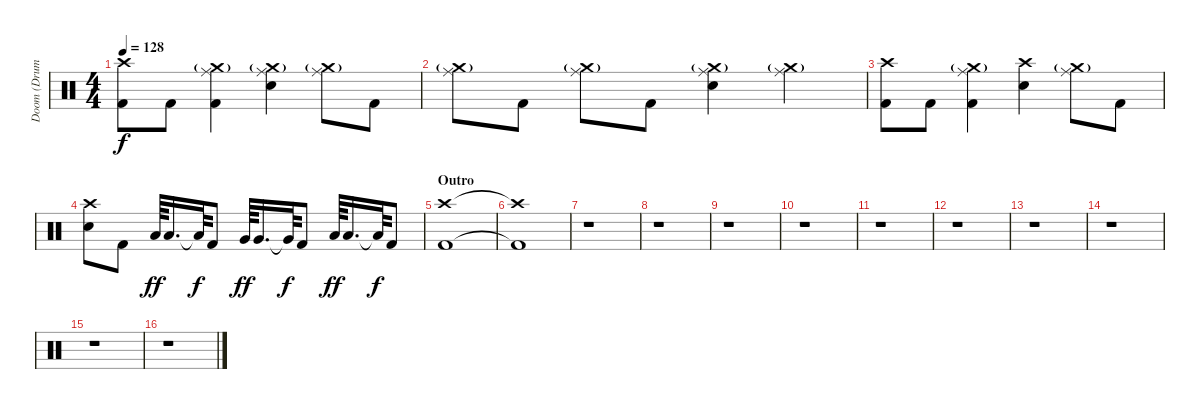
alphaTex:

\track ("Doom (Drums)" "Doom (Drum") {instrument percussion}
\staff {score}
\articulation defaults
\ts (4 4)
\tempo 128
\clef neutral
\ks c
("Crash high (hit)" "Kick (hit) 2").8{dy f} "Kick (hit) 2".8 ("Crash medium (hit)"{g} "Ride (middle)" "Kick (hit) 2").4 ("Crash medium (hit)"{g} "Ride (middle)" "Electric Snare (hit)").4 ("Crash medium (hit)"{g} "Ride (middle)").8 "Kick (hit) 2".8 |
("Crash medium (hit)"{g} "Ride (middle)").8 "Kick (hit) 2".8 ("Crash medium (hit)"{g} "Ride (middle)").8 "Kick (hit) 2".8 ("Crash medium (hit)"{g} "Ride (middle)" "Electric Snare (hit)").4 ("Crash medium (hit)"{g} "Ride (middle)").4 |
("Crash high (hit)" "Kick (hit) 2").8 "Kick (hit) 2".8 ("Crash medium (hit)"{g} "Ride (middle)" "Kick (hit) 2").4 ("Crash high (hit)" "Electric Snare (hit)").4 ("Crash medium (hit)"{g} "Ride (middle)").8 "Kick (hit) 2".8 |
("Crash high (hit)" "Electric Snare (hit)").8 "Kick (hit) 2".8 "Low Tom (hit)".64{dy ff} "Low Tom (hit)".16{d} "Low Tom (hit)"{t}.64{dy f} "Kick (hit) 2".8 "Very Low Tom (hit)".64{dy ff} "Very Low Tom (hit)".16{d} "Very Low Tom (hit)"{t}.64{dy f} "Kick (hit) 2".8 "Low Floor Tom (hit)".64{dy ff} "Low Floor Tom (hit)".16{d} "Low Floor Tom (hit)"{t}.64{dy f} "Kick (hit) 2".8 |
\section ("" "Outro")
("Crash high (hit)" "Kick (hit) 2").1 |
("Crash high (hit)"{t} "Kick (hit) 2"{t}).1 |
r.1 |
r.1 |
r.1 |
r.1 |
r.1 |
r.1 |
r.1 |
r.1 |
r.1 |
r.1
